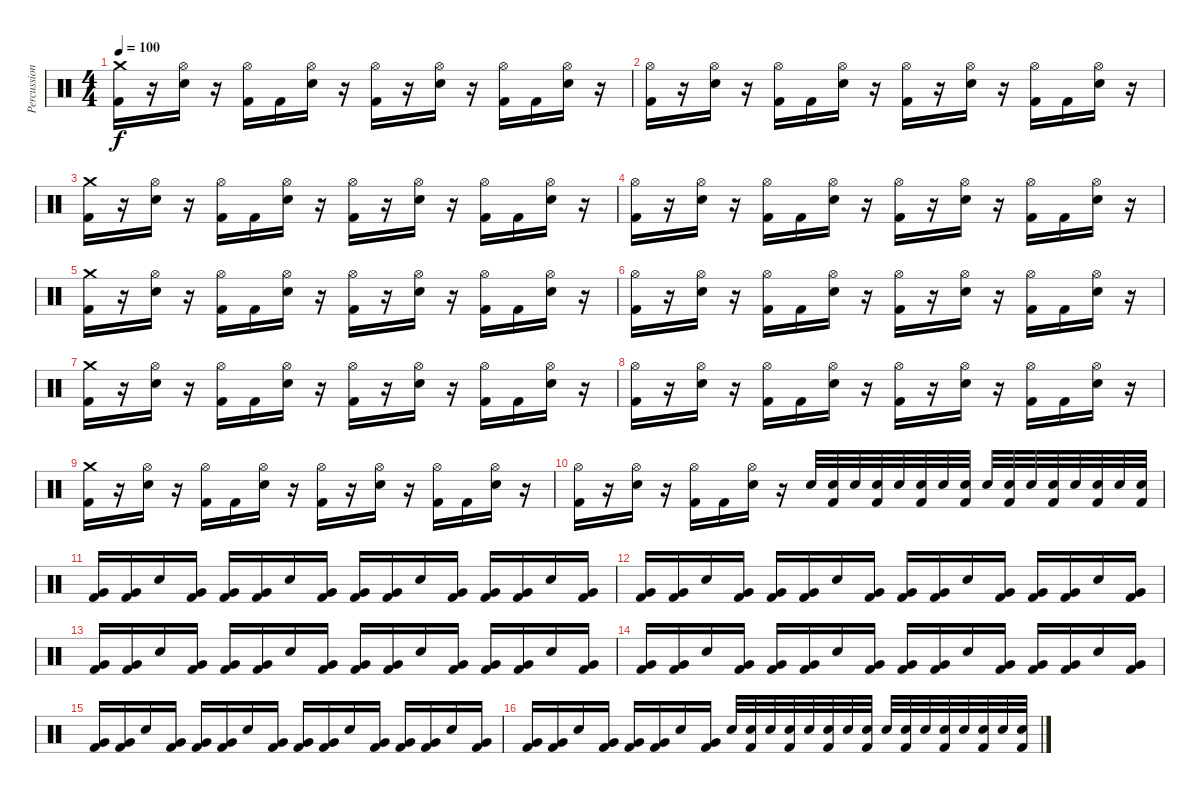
\track ("Percussion" "Percussion") {instrument percussion}
\staff {score}
\articulation defaults
\ts (4 4)
\tempo 100
\clef neutral
\ks c
("Crash medium (hit)" "Kick (hit) 2").16{dy f} r.16 ("Hi-Hat (open)" "Electric Snare (hit)").16 r.16 ("Hi-Hat (open)" "Kick (hit) 2").16 "Kick (hit) 2".16 ("Hi-Hat (open)" "Electric Snare (hit)").16 r.16 ("Hi-Hat (open)" "Kick (hit) 2").16 r.16 ("Hi-Hat (open)" "Electric Snare (hit)").16 r.16 ("Hi-Hat (open)" "Kick (hit) 2").16 "Kick (hit) 2".16 ("Hi-Hat (open)" "Electric Snare (hit)").16 r.16 |
("Hi-Hat (open)" "Kick (hit) 2").16 r.16 ("Hi-Hat (open)" "Electric Snare (hit)").16 r.16 ("Hi-Hat (open)" "Kick (hit) 2").16 "Kick (hit) 2".16 ("Hi-Hat (open)" "Electric Snare (hit)").16 r.16 ("Hi-Hat (open)" "Kick (hit) 2").16 r.16 ("Hi-Hat (open)" "Electric Snare (hit)").16 r.16 ("Hi-Hat (open)" "Kick (hit) 2").16 "Kick (hit) 2".16 ("Hi-Hat (open)" "Electric Snare (hit)").16 r.16 |
("Crash medium (hit)" "Kick (hit) 2").16 r.16 ("Hi-Hat (open)" "Electric Snare (hit)").16 r.16 ("Hi-Hat (open)" "Kick (hit) 2").16 "Kick (hit) 2".16 ("Hi-Hat (open)" "Electric Snare (hit)").16 r.16 ("Hi-Hat (open)" "Kick (hit) 2").16 r.16 ("Hi-Hat (open)" "Electric Snare (hit)").16 r.16 ("Hi-Hat (open)" "Kick (hit) 2").16 "Kick (hit) 2".16 ("Hi-Hat (open)" "Electric Snare (hit)").16 r.16 |
("Hi-Hat (open)" "Kick (hit) 2").16 r.16 ("Hi-Hat (open)" "Electric Snare (hit)").16 r.16 ("Hi-Hat (open)" "Kick (hit) 2").16 "Kick (hit) 2".16 ("Hi-Hat (open)" "Electric Snare (hit)").16 r.16 ("Hi-Hat (open)" "Kick (hit) 2").16 r.16 ("Hi-Hat (open)" "Electric Snare (hit)").16 r.16 ("Hi-Hat (open)" "Kick (hit) 2").16 "Kick (hit) 2".16 ("Hi-Hat (open)" "Electric Snare (hit)").16 r.16 |
("Crash medium (hit)" "Kick (hit) 2").16 r.16 ("Hi-Hat (open)" "Electric Snare (hit)").16 r.16 ("Hi-Hat (open)" "Kick (hit) 2").16 "Kick (hit) 2".16 ("Hi-Hat (open)" "Electric Snare (hit)").16 r.16 ("Hi-Hat (open)" "Kick (hit) 2").16 r.16 ("Hi-Hat (open)" "Electric Snare (hit)").16 r.16 ("Hi-Hat (open)" "Kick (hit) 2").16 "Kick (hit) 2".16 ("Hi-Hat (open)" "Electric Snare (hit)").16 r.16 |
("Hi-Hat (open)" "Kick (hit) 2").16 r.16 ("Hi-Hat (open)" "Electric Snare (hit)").16 r.16 ("Hi-Hat (open)" "Kick (hit) 2").16 "Kick (hit) 2".16 ("Hi-Hat (open)" "Electric Snare (hit)").16 r.16 ("Hi-Hat (open)" "Kick (hit) 2").16 r.16 ("Hi-Hat (open)" "Electric Snare (hit)").16 r.16 ("Hi-Hat (open)" "Kick (hit) 2").16 "Kick (hit) 2".16 ("Hi-Hat (open)" "Electric Snare (hit)").16 r.16 |
("Crash medium (hit)" "Kick (hit) 2").16 r.16 ("Hi-Hat (open)" "Electric Snare (hit)").16 r.16 ("Hi-Hat (open)" "Kick (hit) 2").16 "Kick (hit) 2".16 ("Hi-Hat (open)" "Electric Snare (hit)").16 r.16 ("Hi-Hat (open)" "Kick (hit) 2").16 r.16 ("Hi-Hat (open)" "Electric Snare (hit)").16 r.16 ("Hi-Hat (open)" "Kick (hit) 2").16 "Kick (hit) 2".16 ("Hi-Hat (open)" "Electric Snare (hit)").16 r.16 |
("Hi-Hat (open)" "Kick (hit) 2").16 r.16 ("Hi-Hat (open)" "Electric Snare (hit)").16 r.16 ("Hi-Hat (open)" "Kick (hit) 2").16 "Kick (hit) 2".16 ("Hi-Hat (open)" "Electric Snare (hit)").16 r.16 ("Hi-Hat (open)" "Kick (hit) 2").16 r.16 ("Hi-Hat (open)" "Electric Snare (hit)").16 r.16 ("Hi-Hat (open)" "Kick (hit) 2").16 "Kick (hit) 2".16 ("Hi-Hat (open)" "Electric Snare (hit)").16 r.16 |
("Crash medium (hit)" "Kick (hit) 2").16 r.16 ("Hi-Hat (open)" "Electric Snare (hit)").16 r.16 ("Hi-Hat (open)" "Kick (hit) 2").16 "Kick (hit) 2".16 ("Hi-Hat (open)" "Electric Snare (hit)").16 r.16 ("Hi-Hat (open)" "Kick (hit) 2").16 r.16 ("Hi-Hat (open)" "Electric Snare (hit)").16 r.16 ("Hi-Hat (open)" "Kick (hit) 2").16 "Kick (hit) 2".16 ("Hi-Hat (open)" "Electric Snare (hit)").16 r.16 |
("Hi-Hat (open)" "Kick (hit) 2").16 r.16 ("Hi-Hat (open)" "Electric Snare (hit)").16 r.16 ("Hi-Hat (open)" "Kick (hit) 2").16 "Kick (hit) 2".16 ("Hi-Hat (open)" "Electric Snare (hit)").16 r.16 "Electric Snare (hit)".32 ("Electric Snare (hit)" "Kick (hit) 2").32 "Electric Snare (hit)".32 ("Electric Snare (hit)" "Kick (hit) 2").32 "Electric Snare (hit)".32 ("Electric Snare (hit)" "Kick (hit) 2").32 "Electric Snare (hit)".32 ("Electric Snare (hit)" "Kick (hit) 2").32 "Electric Snare (hit)".32 ("Electric Snare (hit)" "Kick (hit) 2").32 "Electric Snare (hit)".32 ("Electric Snare (hit)" "Kick (hit) 2").32 "Electric Snare (hit)".32 ("Electric Snare (hit)" "Kick (hit) 2").32 "Electric Snare (hit)".32 ("Electric Snare (hit)" "Kick (hit) 2").32 |
("Very Low Tom (hit)" "Kick (hit) 2").16 ("Very Low Tom (hit)" "Kick (hit) 2").16 "Electric Snare (hit)".16 ("Very Low Tom (hit)" "Kick (hit) 2").16 ("Very Low Tom (hit)" "Kick (hit) 2").16 ("Very Low Tom (hit)" "Kick (hit) 2").16 "Electric Snare (hit)".16 ("Very Low Tom (hit)" "Kick (hit) 2").16 ("Very Low Tom (hit)" "Kick (hit) 2").16 ("Very Low Tom (hit)" "Kick (hit) 2").16 "Electric Snare (hit)".16 ("Very Low Tom (hit)" "Kick (hit) 2").16 ("Very Low Tom (hit)" "Kick (hit) 2").16 ("Very Low Tom (hit)" "Kick (hit) 2").16 "Electric Snare (hit)".16 ("Very Low Tom (hit)" "Kick (hit) 2").16 |
("Very Low Tom (hit)" "Kick (hit) 2").16 ("Very Low Tom (hit)" "Kick (hit) 2").16 "Electric Snare (hit)".16 ("Very Low Tom (hit)" "Kick (hit) 2").16 ("Very Low Tom (hit)" "Kick (hit) 2").16 ("Very Low Tom (hit)" "Kick (hit) 2").16 "Electric Snare (hit)".16 ("Very Low Tom (hit)" "Kick (hit) 2").16 ("Very Low Tom (hit)" "Kick (hit) 2").16 ("Very Low Tom (hit)" "Kick (hit) 2").16 "Electric Snare (hit)".16 ("Very Low Tom (hit)" "Kick (hit) 2").16 ("Very Low Tom (hit)" "Kick (hit) 2").16 ("Very Low Tom (hit)" "Kick (hit) 2").16 "Electric Snare (hit)".16 ("Very Low Tom (hit)" "Kick (hit) 2").16 |
("Very Low Tom (hit)" "Kick (hit) 2").16 ("Very Low Tom (hit)" "Kick (hit) 2").16 "Electric Snare (hit)".16 ("Very Low Tom (hit)" "Kick (hit) 2").16 ("Very Low Tom (hit)" "Kick (hit) 2").16 ("Very Low Tom (hit)" "Kick (hit) 2").16 "Electric Snare (hit)".16 ("Very Low Tom (hit)" "Kick (hit) 2").16 ("Very Low Tom (hit)" "Kick (hit) 2").16 ("Very Low Tom (hit)" "Kick (hit) 2").16 "Electric Snare (hit)".16 ("Very Low Tom (hit)" "Kick (hit) 2").16 ("Very Low Tom (hit)" "Kick (hit) 2").16 ("Very Low Tom (hit)" "Kick (hit) 2").16 "Electric Snare (hit)".16 ("Very Low Tom (hit)" "Kick (hit) 2").16 |
("Very Low Tom (hit)" "Kick (hit) 2").16 ("Very Low Tom (hit)" "Kick (hit) 2").16 "Electric Snare (hit)".16 ("Very Low Tom (hit)" "Kick (hit) 2").16 ("Very Low Tom (hit)" "Kick (hit) 2").16 ("Very Low Tom (hit)" "Kick (hit) 2").16 "Electric Snare (hit)".16 ("Very Low Tom (hit)" "Kick (hit) 2").16 ("Very Low Tom (hit)" "Kick (hit) 2").16 ("Very Low Tom (hit)" "Kick (hit) 2").16 "Electric Snare (hit)".16 ("Very Low Tom (hit)" "Kick (hit) 2").16 ("Very Low Tom (hit)" "Kick (hit) 2").16 ("Very Low Tom (hit)" "Kick (hit) 2").16 "Electric Snare (hit)".16 ("Very Low Tom (hit)" "Kick (hit) 2").16 |
("Very Low Tom (hit)" "Kick (hit) 2").16 ("Very Low Tom (hit)" "Kick (hit) 2").16 "Electric Snare (hit)".16 ("Very Low Tom (hit)" "Kick (hit) 2").16 ("Very Low Tom (hit)" "Kick (hit) 2").16 ("Very Low Tom (hit)" "Kick (hit) 2").16 "Electric Snare (hit)".16 ("Very Low Tom (hit)" "Kick (hit) 2").16 ("Very Low Tom (hit)" "Kick (hit) 2").16 ("Very Low Tom (hit)" "Kick (hit) 2").16 "Electric Snare (hit)".16 ("Very Low Tom (hit)" "Kick (hit) 2").16 ("Very Low Tom (hit)" "Kick (hit) 2").16 ("Very Low Tom (hit)" "Kick (hit) 2").16 "Electric Snare (hit)".16 ("Very Low Tom (hit)" "Kick (hit) 2").16 |
("Very Low Tom (hit)" "Kick (hit) 2").16 ("Very Low Tom (hit)" "Kick (hit) 2").16 "Electric Snare (hit)".16 ("Very Low Tom (hit)" "Kick (hit) 2").16 ("Very Low Tom (hit)" "Kick (hit) 2").16 ("Very Low Tom (hit)" "Kick (hit) 2").16 "Electric Snare (hit)".16 ("Very Low Tom (hit)" "Kick (hit) 2").16 "Electric Snare (hit)".32 ("Electric Snare (hit)" "Kick (hit) 2").32 "Electric Snare (hit)".32 ("Electric Snare (hit)" "Kick (hit) 2").32 "Electric Snare (hit)".32 ("Electric Snare (hit)" "Kick (hit) 2").32 "Electric Snare (hit)".32 ("Electric Snare (hit)" "Kick (hit) 2").32 "Electric Snare (hit)".32 ("Electric Snare (hit)" "Kick (hit) 2").32 "Electric Snare (hit)".32 ("Electric Snare (hit)" "Kick (hit) 2").32 "Electric Snare (hit)".32 ("Electric Snare (hit)" "Kick (hit) 2").32 "Electric Snare (hit)".32 ("Electric Snare (hit)" "Kick (hit) 2").32
